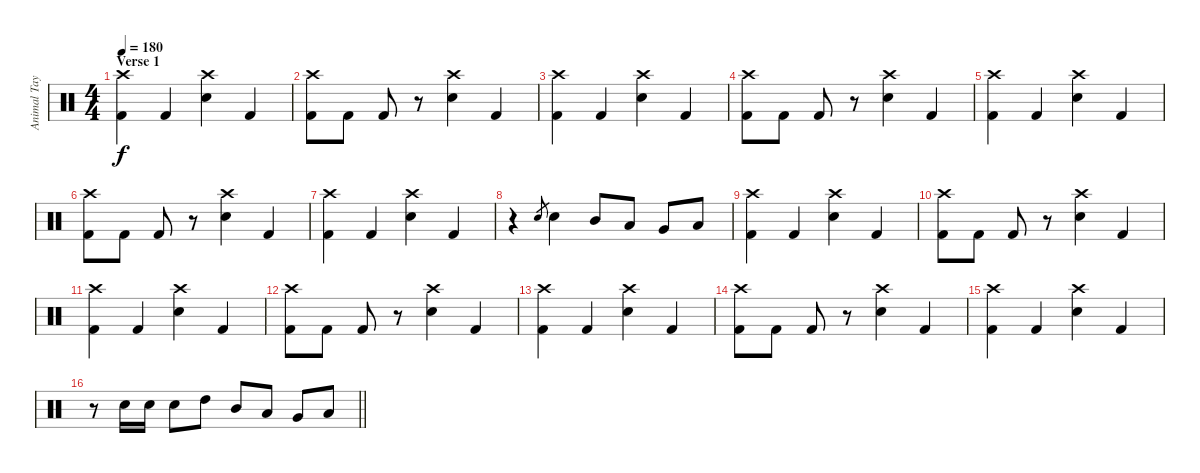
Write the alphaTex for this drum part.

\track ("Animal Taylor" "Animal Tay") {instrument percussion}
\staff {score}
\articulation defaults
\ts (4 4)
\section ("" "Verse 1")
\tempo 180
\clef neutral
\ks c
("Crash high (hit)" "Kick (hit) 2").4{dy f} "Kick (hit) 2".4 ("Crash high (hit)" "Snare (hit) 2").4 "Kick (hit) 2".4 |
("Crash high (hit)" "Kick (hit) 2").8 "Kick (hit) 2".8 "Kick (hit) 2".8 r.8 ("Crash high (hit)" "Snare (hit) 2").4 "Kick (hit) 2".4 |
("Crash high (hit)" "Kick (hit) 2").4 "Kick (hit) 2".4 ("Crash high (hit)" "Snare (hit) 2").4 "Kick (hit) 2".4 |
("Crash high (hit)" "Kick (hit) 2").8 "Kick (hit) 2".8 "Kick (hit) 2".8 r.8 ("Crash high (hit)" "Snare (hit) 2").4 "Kick (hit) 2".4 |
("Crash high (hit)" "Kick (hit) 2").4 "Kick (hit) 2".4 ("Crash high (hit)" "Snare (hit) 2").4 "Kick (hit) 2".4 |
("Crash high (hit)" "Kick (hit) 2").8 "Kick (hit) 2".8 "Kick (hit) 2".8 r.8 ("Crash high (hit)" "Snare (hit) 2").4 "Kick (hit) 2".4 |
("Crash high (hit)" "Kick (hit) 2").4 "Kick (hit) 2".4 ("Crash high (hit)" "Snare (hit) 2").4 "Kick (hit) 2".4 |
r.4 "Snare (hit) 2".8{gr} "Snare (hit) 2".4 "Mid Tom (hit)".8 "Low Tom (hit)".8 "Very Low Tom (hit)".8 "Low Floor Tom (hit)".8 |
("Crash high (hit)" "Kick (hit) 2").4 "Kick (hit) 2".4 ("Crash high (hit)" "Snare (hit) 2").4 "Kick (hit) 2".4 |
("Crash high (hit)" "Kick (hit) 2").8 "Kick (hit) 2".8 "Kick (hit) 2".8 r.8 ("Crash high (hit)" "Snare (hit) 2").4 "Kick (hit) 2".4 |
("Crash high (hit)" "Kick (hit) 2").4 "Kick (hit) 2".4 ("Crash high (hit)" "Snare (hit) 2").4 "Kick (hit) 2".4 |
("Crash high (hit)" "Kick (hit) 2").8 "Kick (hit) 2".8 "Kick (hit) 2".8 r.8 ("Crash high (hit)" "Snare (hit) 2").4 "Kick (hit) 2".4 |
("Crash high (hit)" "Kick (hit) 2").4 "Kick (hit) 2".4 ("Crash high (hit)" "Snare (hit) 2").4 "Kick (hit) 2".4 |
("Crash high (hit)" "Kick (hit) 2").8 "Kick (hit) 2".8 "Kick (hit) 2".8 r.8 ("Crash high (hit)" "Snare (hit) 2").4 "Kick (hit) 2".4 |
("Crash high (hit)" "Kick (hit) 2").4 "Kick (hit) 2".4 ("Crash high (hit)" "Snare (hit) 2").4 "Kick (hit) 2".4 |
\barLineRight lightlight
r.8 "Snare (hit) 2".16 "Snare (hit) 2".16 "Snare (hit) 2".8 "High Tom (hit)".8 "Mid Tom (hit)".8 "Low Tom (hit)".8 "Very Low Tom (hit)".8 "Low Floor Tom (hit)".8
